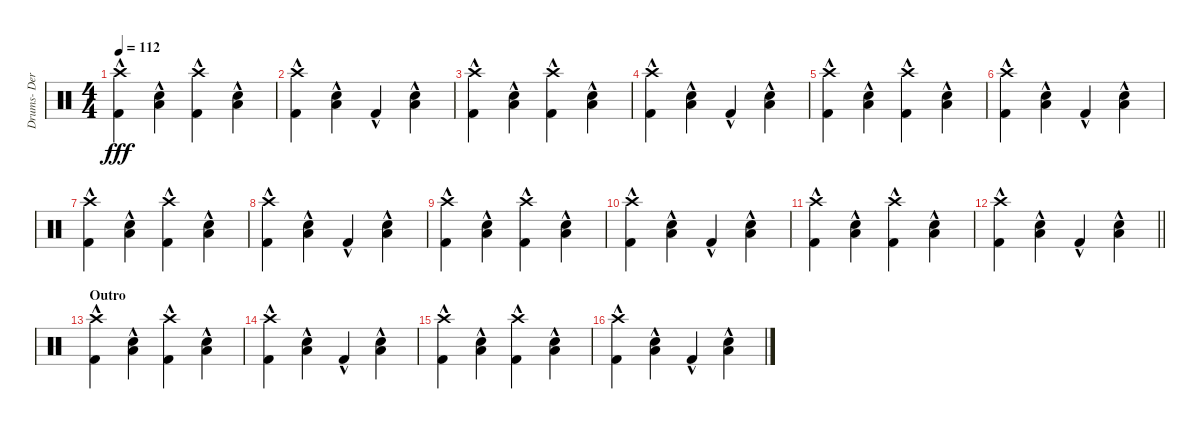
\track ("Drums- Derek Grant" "Drums- Der") {instrument percussion}
\staff {score}
\articulation defaults
\ts (4 4)
\tempo 112
\clef neutral
\ks c
("Crash high (hit)" "Kick (hit) 2"{hac}).4{dy fff} ("Low Tom (hit)"{hac} "Snare (hit) 2"{hac}).4 ("Crash high (hit)" "Kick (hit) 2"{hac}).4 ("Low Tom (hit)"{hac} "Snare (hit) 2"{hac}).4 |
("Crash high (hit)" "Kick (hit) 2"{hac}).4 ("Low Tom (hit)"{hac} "Snare (hit) 2"{hac}).4 "Kick (hit) 2"{hac}.4 ("Low Tom (hit)"{hac} "Snare (hit) 2"{hac}).4 |
("Crash high (hit)" "Kick (hit) 2"{hac}).4 ("Low Tom (hit)"{hac} "Snare (hit) 2"{hac}).4 ("Crash high (hit)" "Kick (hit) 2"{hac}).4 ("Low Tom (hit)"{hac} "Snare (hit) 2"{hac}).4 |
("Crash high (hit)" "Kick (hit) 2"{hac}).4 ("Low Tom (hit)"{hac} "Snare (hit) 2"{hac}).4 "Kick (hit) 2"{hac}.4 ("Low Tom (hit)"{hac} "Snare (hit) 2"{hac}).4 |
("Crash high (hit)" "Kick (hit) 2"{hac}).4 ("Low Tom (hit)"{hac} "Snare (hit) 2"{hac}).4 ("Crash high (hit)" "Kick (hit) 2"{hac}).4 ("Low Tom (hit)"{hac} "Snare (hit) 2"{hac}).4 |
("Crash high (hit)" "Kick (hit) 2"{hac}).4 ("Low Tom (hit)"{hac} "Snare (hit) 2"{hac}).4 "Kick (hit) 2"{hac}.4 ("Low Tom (hit)"{hac} "Snare (hit) 2"{hac}).4 |
("Crash high (hit)" "Kick (hit) 2"{hac}).4 ("Low Tom (hit)"{hac} "Snare (hit) 2"{hac}).4 ("Crash high (hit)" "Kick (hit) 2"{hac}).4 ("Low Tom (hit)"{hac} "Snare (hit) 2"{hac}).4 |
("Crash high (hit)" "Kick (hit) 2"{hac}).4 ("Low Tom (hit)"{hac} "Snare (hit) 2"{hac}).4 "Kick (hit) 2"{hac}.4 ("Low Tom (hit)"{hac} "Snare (hit) 2"{hac}).4 |
("Crash high (hit)" "Kick (hit) 2"{hac}).4 ("Low Tom (hit)"{hac} "Snare (hit) 2"{hac}).4 ("Crash high (hit)" "Kick (hit) 2"{hac}).4 ("Low Tom (hit)"{hac} "Snare (hit) 2"{hac}).4 |
("Crash high (hit)" "Kick (hit) 2"{hac}).4 ("Low Tom (hit)"{hac} "Snare (hit) 2"{hac}).4 "Kick (hit) 2"{hac}.4 ("Low Tom (hit)"{hac} "Snare (hit) 2"{hac}).4 |
("Crash high (hit)" "Kick (hit) 2"{hac}).4 ("Low Tom (hit)"{hac} "Snare (hit) 2"{hac}).4 ("Crash high (hit)" "Kick (hit) 2"{hac}).4 ("Low Tom (hit)"{hac} "Snare (hit) 2"{hac}).4 |
\barLineRight lightlight
("Crash high (hit)" "Kick (hit) 2"{hac}).4 ("Low Tom (hit)"{hac} "Snare (hit) 2"{hac}).4 "Kick (hit) 2"{hac}.4 ("Low Tom (hit)"{hac} "Snare (hit) 2"{hac}).4 |
\section ("" "Outro")
("Crash high (hit)" "Kick (hit) 2"{hac}).4 ("Low Tom (hit)"{hac} "Snare (hit) 2"{hac}).4 ("Crash high (hit)" "Kick (hit) 2"{hac}).4 ("Low Tom (hit)"{hac} "Snare (hit) 2"{hac}).4 |
("Crash high (hit)" "Kick (hit) 2"{hac}).4 ("Low Tom (hit)"{hac} "Snare (hit) 2"{hac}).4 "Kick (hit) 2"{hac}.4 ("Low Tom (hit)"{hac} "Snare (hit) 2"{hac}).4 |
("Crash high (hit)" "Kick (hit) 2"{hac}).4 ("Low Tom (hit)"{hac} "Snare (hit) 2"{hac}).4 ("Crash high (hit)" "Kick (hit) 2"{hac}).4 ("Low Tom (hit)"{hac} "Snare (hit) 2"{hac}).4 |
("Crash high (hit)" "Kick (hit) 2"{hac}).4 ("Low Tom (hit)"{hac} "Snare (hit) 2"{hac}).4 "Kick (hit) 2"{hac}.4 ("Low Tom (hit)"{hac} "Snare (hit) 2"{hac}).4
